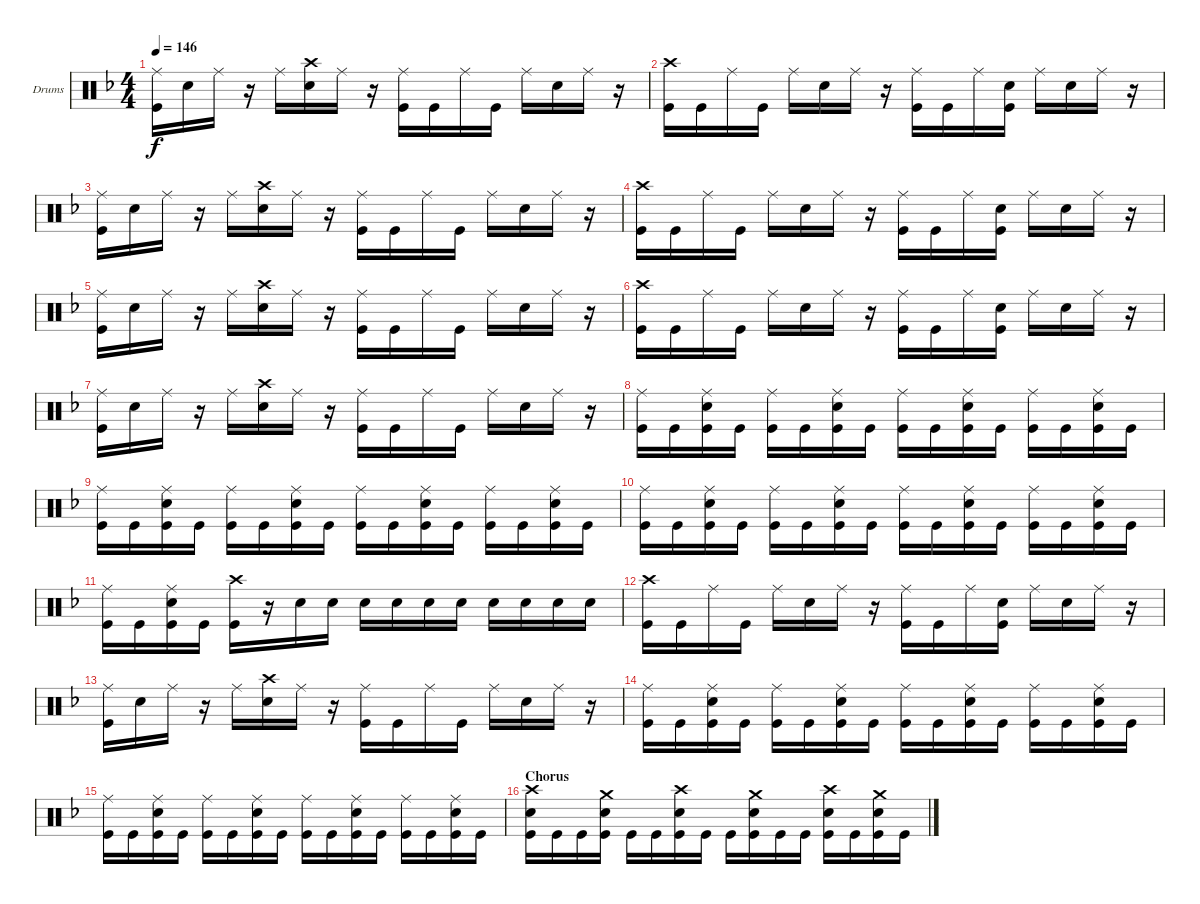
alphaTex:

\defaultSystemsLayout 4
\bracketExtendMode groupsimilarinstruments
\firstSystemTrackNameOrientation horizontal
\otherSystemsTrackNameOrientation horizontal
\track ("Gar Samuelson (Drums)" "Drums") {instrument percussion}
\staff {score}
\articulation defaults
\ts (4 4)
\tempo 146
\clef neutral
\scale
0.333333
\ks dminor
("Ride (middle)" "Kick (hit)").16{dy f} "Snare (hit) 2".16 "Ride (middle)".16 r.16 "Ride (middle)".16 ("Crash high (hit)" "Snare (hit) 2").16 "Ride (middle)".16 r.16 ("Ride (middle)" "Kick (hit)").16 "Kick (hit)".16 "Ride (middle)".16 "Kick (hit)".16 "Ride (middle)".16 "Snare (hit) 2".16 "Ride (middle)".16 r.16 |
\scale
0.333333 ("Crash high (hit)" "Kick (hit)").16 "Kick (hit)".16 "Ride (middle)".16 "Kick (hit)".16 "Ride (middle)".16 "Snare (hit) 2".16 "Ride (middle)".16 r.16 ("Ride (middle)" "Kick (hit)").16 "Kick (hit)".16 "Ride (middle)".16 ("Snare (hit) 2" "Kick (hit)").16 "Ride (middle)".16 "Snare (hit) 2".16 "Ride (middle)".16 r.16 |
\scale
0.333333 ("Ride (middle)" "Kick (hit)").16 "Snare (hit) 2".16 "Ride (middle)".16 r.16 "Ride (middle)".16 ("Crash high (hit)" "Snare (hit) 2").16 "Ride (middle)".16 r.16 ("Ride (middle)" "Kick (hit)").16 "Kick (hit)".16 "Ride (middle)".16 "Kick (hit)".16 "Ride (middle)".16 "Snare (hit) 2".16 "Ride (middle)".16 r.16 |
\scale
0.333333 ("Crash high (hit)" "Kick (hit)").16 "Kick (hit)".16 "Ride (middle)".16 "Kick (hit)".16 "Ride (middle)".16 "Snare (hit) 2".16 "Ride (middle)".16 r.16 ("Ride (middle)" "Kick (hit)").16 "Kick (hit)".16 "Ride (middle)".16 ("Snare (hit) 2" "Kick (hit)").16 "Ride (middle)".16 "Snare (hit) 2".16 "Ride (middle)".16 r.16 |
\scale
0.333333 ("Ride (middle)" "Kick (hit)").16 "Snare (hit) 2".16 "Ride (middle)".16 r.16 "Ride (middle)".16 ("Crash high (hit)" "Snare (hit) 2").16 "Ride (middle)".16 r.16 ("Ride (middle)" "Kick (hit)").16 "Kick (hit)".16 "Ride (middle)".16 "Kick (hit)".16 "Ride (middle)".16 "Snare (hit) 2".16 "Ride (middle)".16 r.16 |
\scale
0.333333 ("Crash high (hit)" "Kick (hit)").16 "Kick (hit)".16 "Ride (middle)".16 "Kick (hit)".16 "Ride (middle)".16 "Snare (hit) 2".16 "Ride (middle)".16 r.16 ("Ride (middle)" "Kick (hit)").16 "Kick (hit)".16 "Ride (middle)".16 ("Snare (hit) 2" "Kick (hit)").16 "Ride (middle)".16 "Snare (hit) 2".16 "Ride (middle)".16 r.16 |
\scale
0.333333 ("Ride (middle)" "Kick (hit)").16 "Snare (hit) 2".16 "Ride (middle)".16 r.16 "Ride (middle)".16 ("Crash high (hit)" "Snare (hit) 2").16 "Ride (middle)".16 r.16 ("Ride (middle)" "Kick (hit)").16 "Kick (hit)".16 "Ride (middle)".16 "Kick (hit)".16 "Ride (middle)".16 "Snare (hit) 2".16 "Ride (middle)".16 r.16 |
\scale
0.333333 ("Ride (middle)" "Kick (hit)").16 "Kick (hit)".16 ("Ride (middle)" "Snare (hit) 2" "Kick (hit)").16 "Kick (hit)".16 ("Ride (middle)" "Kick (hit)").16 "Kick (hit)".16 ("Ride (middle)" "Snare (hit) 2" "Kick (hit)").16 "Kick (hit)".16 ("Ride (middle)" "Kick (hit)").16 "Kick (hit)".16 ("Ride (middle)" "Snare (hit) 2" "Kick (hit)").16 "Kick (hit)".16 ("Ride (middle)" "Kick (hit)").16 "Kick (hit)".16 ("Ride (middle)" "Snare (hit) 2" "Kick (hit)").16 "Kick (hit)".16 |
\scale
0.333333 ("Ride (middle)" "Kick (hit)").16 "Kick (hit)".16 ("Ride (middle)" "Snare (hit) 2" "Kick (hit)").16 "Kick (hit)".16 ("Ride (middle)" "Kick (hit)").16 "Kick (hit)".16 ("Ride (middle)" "Snare (hit) 2" "Kick (hit)").16 "Kick (hit)".16 ("Ride (middle)" "Kick (hit)").16 "Kick (hit)".16 ("Ride (middle)" "Snare (hit) 2" "Kick (hit)").16 "Kick (hit)".16 ("Ride (middle)" "Kick (hit)").16 "Kick (hit)".16 ("Ride (middle)" "Snare (hit) 2" "Kick (hit)").16 "Kick (hit)".16 |
\scale
0.333333 ("Ride (middle)" "Kick (hit)").16 "Kick (hit)".16 ("Ride (middle)" "Snare (hit) 2" "Kick (hit)").16 "Kick (hit)".16 ("Ride (middle)" "Kick (hit)").16 "Kick (hit)".16 ("Ride (middle)" "Snare (hit) 2" "Kick (hit)").16 "Kick (hit)".16 ("Ride (middle)" "Kick (hit)").16 "Kick (hit)".16 ("Ride (middle)" "Snare (hit) 2" "Kick (hit)").16 "Kick (hit)".16 ("Ride (middle)" "Kick (hit)").16 "Kick (hit)".16 ("Ride (middle)" "Snare (hit) 2" "Kick (hit)").16 "Kick (hit)".16 |
\scale
0.333333 ("Ride (middle)" "Kick (hit)").16 "Kick (hit)".16 ("Ride (middle)" "Snare (hit) 2" "Kick (hit)").16 "Kick (hit)".16 ("Crash high (hit)" "Kick (hit)").16 r.16 "Snare (hit) 2".16 "Snare (hit) 2".16 "Snare (hit) 2".16 "Snare (hit) 2".16 "Snare (hit) 2".16 "Snare (hit) 2".16 "Snare (hit) 2".16 "Snare (hit) 2".16 "Snare (hit) 2".16 "Snare (hit) 2".16 |
\scale
0.333333 ("Crash high (hit)" "Kick (hit)").16 "Kick (hit)".16 "Ride (middle)".16 "Kick (hit)".16 "Ride (middle)".16 "Snare (hit) 2".16 "Ride (middle)".16 r.16 ("Ride (middle)" "Kick (hit)").16 "Kick (hit)".16 "Ride (middle)".16 ("Snare (hit) 2" "Kick (hit)").16 "Ride (middle)".16 "Snare (hit) 2".16 "Ride (middle)".16 r.16 |
\scale
0.333333 ("Ride (middle)" "Kick (hit)").16 "Snare (hit) 2".16 "Ride (middle)".16 r.16 "Ride (middle)".16 ("Crash high (hit)" "Snare (hit) 2").16 "Ride (middle)".16 r.16 ("Ride (middle)" "Kick (hit)").16 "Kick (hit)".16 "Ride (middle)".16 "Kick (hit)".16 "Ride (middle)".16 "Snare (hit) 2".16 "Ride (middle)".16 r.16 |
\scale
0.333333 ("Ride (middle)" "Kick (hit)").16 "Kick (hit)".16 ("Ride (middle)" "Snare (hit) 2" "Kick (hit)").16 "Kick (hit)".16 ("Ride (middle)" "Kick (hit)").16 "Kick (hit)".16 ("Ride (middle)" "Snare (hit) 2" "Kick (hit)").16 "Kick (hit)".16 ("Ride (middle)" "Kick (hit)").16 "Kick (hit)".16 ("Ride (middle)" "Snare (hit) 2" "Kick (hit)").16 "Kick (hit)".16 ("Ride (middle)" "Kick (hit)").16 "Kick (hit)".16 ("Ride (middle)" "Snare (hit) 2" "Kick (hit)").16 "Kick (hit)".16 |
\scale
0.333333 ("Ride (middle)" "Kick (hit)").16 "Kick (hit)".16 ("Ride (middle)" "Snare (hit) 2" "Kick (hit)").16 "Kick (hit)".16 ("Ride (middle)" "Kick (hit)").16 "Kick (hit)".16 ("Ride (middle)" "Snare (hit) 2" "Kick (hit)").16 "Kick (hit)".16 ("Ride (middle)" "Kick (hit)").16 "Kick (hit)".16 ("Ride (middle)" "Snare (hit) 2" "Kick (hit)").16 "Kick (hit)".16 ("Ride (middle)" "Kick (hit)").16 "Kick (hit)".16 ("Ride (middle)" "Snare (hit) 2" "Kick (hit)").16 "Kick (hit)".16 |
\section ("" "Chorus")
\scale
0.333333 ("Crash high (hit)" "Snare (hit) 2" "Kick (hit)").16 "Kick (hit)".16 "Kick (hit)".16 ("Crash medium (hit)" "Snare (hit) 2" "Kick (hit)").16 "Kick (hit)".16 "Kick (hit)".16 ("Crash high (hit)" "Snare (hit) 2" "Kick (hit)").16 "Kick (hit)".16 "Kick (hit)".16 ("Crash medium (hit)" "Snare (hit) 2" "Kick (hit)").16 "Kick (hit)".16 "Kick (hit)".16 ("Crash high (hit)" "Snare (hit) 2" "Kick (hit)").16 "Kick (hit)".16 ("Crash medium (hit)" "Snare (hit) 2" "Kick (hit)").16 "Kick (hit)".16
